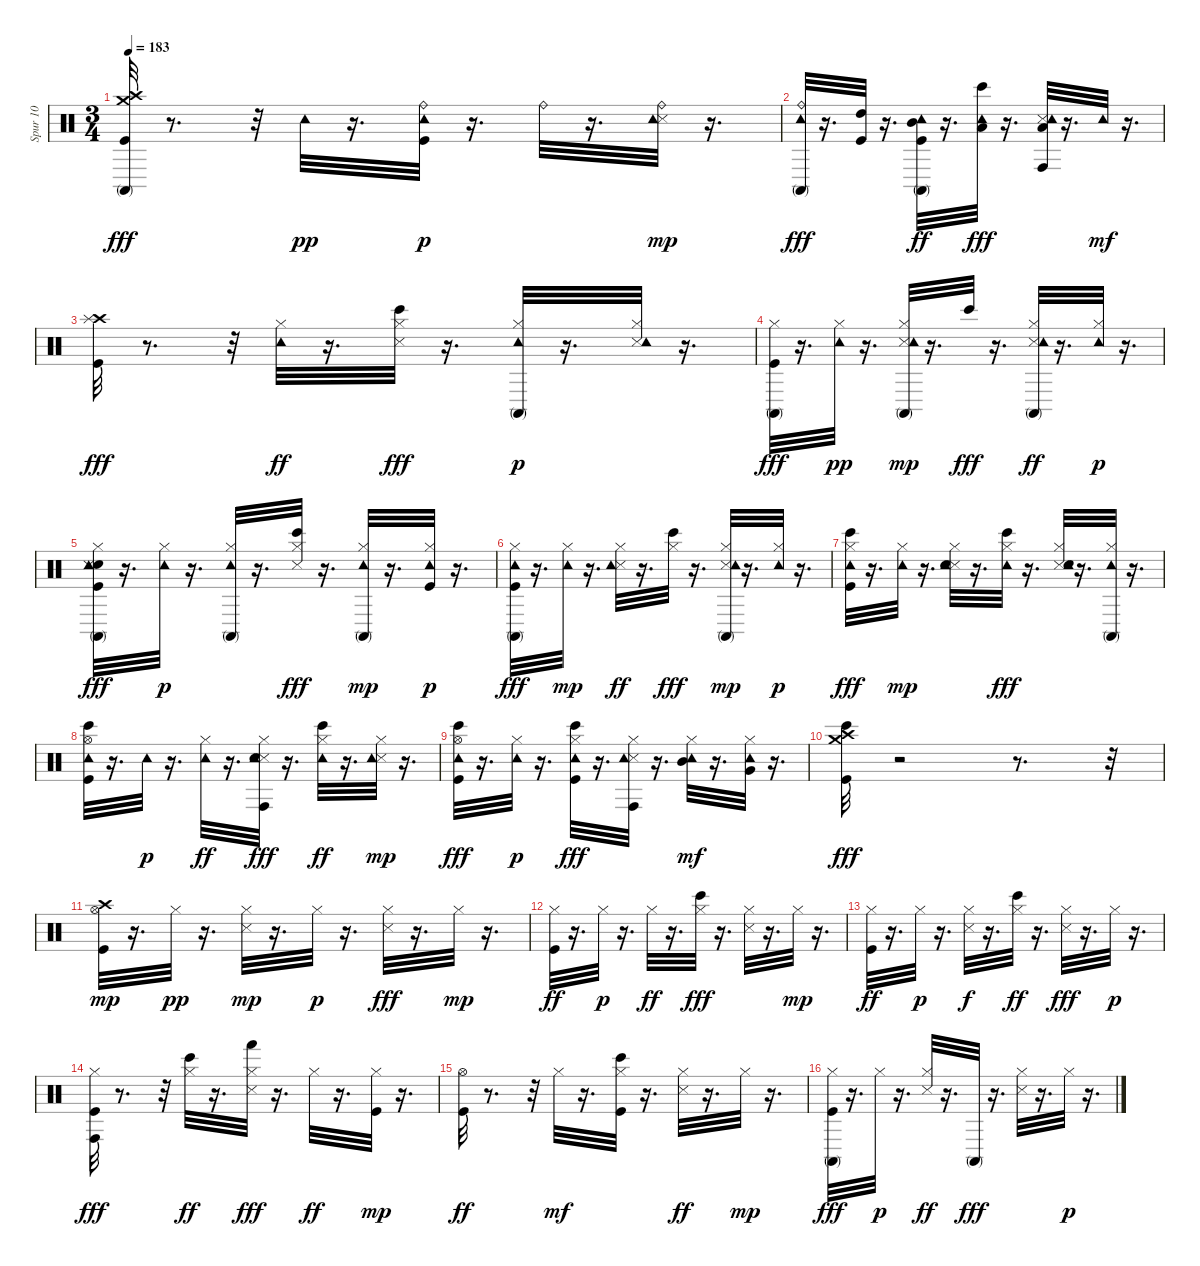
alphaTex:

\track ("Spur 10" "Spur 10") {instrument percussion}
\staff {score}
\articulation defaults
\ts (3 4)
\tempo 183
\clef neutral
\ks c
("Kick (hit)" "Crash high (hit)" "Crash medium (hit)" "Conga high (mute)").32{dy fff} r.8{d} r.32 "Tambourine (hit)".32{dy pp} r.16{d} ("Kick (hit)" "Ride (bell)" "Tambourine (hit)").32{dy p} r.16{d} "Ride (bell)".32 r.16{d} ("Snare (side stick) 3" "Ride (bell)" "Tambourine (hit)").32{dy mp} r.16{d} |
("Ride (bell)" "Tambourine (hit)" "Conga high (mute)").32{dy fff} r.16{d} ("Kick (hit)" "High Tom (hit)").32 r.16{d} ("Kick (hit)" "Mid Tom (hit)" "Tambourine (hit)" "Conga high (mute)").32{dy ff} r.16{d} ("Low Tom (hit)" "Tambourine (hit)" "Bongo High (hit)").32{dy fff} r.16{d} ("Snare (side stick) 3" "Low Tom (hit)" "Tambourine (hit)" "Conga high (hit)").32 r.16{d} "Tambourine (hit)".32{dy mf} r.16{d} |
("Kick (hit)" "Crash high (hit)" "Splash (hit)").32{dy fff} r.8{d} r.32 ("Hi-Hat (closed)" "Tambourine (hit)").32{dy ff} r.16{d} ("Snare (side stick) 3" "Hi-Hat (closed)" "Bongo High (hit)").32{dy fff} r.16{d} ("Hi-Hat (closed)" "Tambourine (hit)" "Conga high (mute)").32{dy p} r.16{d} ("Snare (side stick) 3" "Hi-Hat (closed)" "Tambourine (hit)").32 r.16{d} |
("Kick (hit)" "Hi-Hat (closed)" "Conga high (mute)").32{dy fff} r.16{d} ("Hi-Hat (closed)" "Tambourine (hit)").32{dy pp} r.16{d} ("Snare (side stick) 3" "Hi-Hat (closed)" "Tambourine (hit)" "Conga high (mute)").32{dy mp} r.16{d} "Bongo High (hit)".32{dy fff} r.16{d} ("Snare (side stick) 3" "Hi-Hat (closed)" "Tambourine (hit)" "Conga high (mute)").32{dy ff} r.16{d} ("Hi-Hat (closed)" "Tambourine (hit)").32{dy p} r.16{d} |
("Metronome (bell)" "Kick (hit)" "Snare (side stick) 3" "Hi-Hat (closed)" "Tambourine (hit)" "Conga high (mute)").32{dy fff} r.16{d} ("Hi-Hat (closed)" "Tambourine (hit)").32{dy p} r.16{d} ("Hi-Hat (closed)" "Tambourine (hit)" "Conga high (mute)").32 r.16{d} ("Snare (side stick) 3" "Hi-Hat (closed)" "Bongo High (hit)").32{dy fff} r.16{d} ("Hi-Hat (closed)" "Tambourine (hit)" "Conga high (mute)").32{dy mp} r.16{d} ("Kick (hit)" "Hi-Hat (closed)" "Tambourine (hit)").32{dy p} r.16{d} |
("Kick (hit)" "Hi-Hat (closed)" "Tambourine (hit)" "Conga high (mute)").32{dy fff} r.16{d} ("Hi-Hat (closed)" "Tambourine (hit)").32{dy mp} r.16{d} ("Snare (side stick) 3" "Hi-Hat (closed)" "Tambourine (hit)").32{dy ff} r.16{d} ("Hi-Hat (closed)" "Bongo High (hit)").32{dy fff} r.16{d} ("Snare (side stick) 3" "Hi-Hat (closed)" "Tambourine (hit)" "Conga high (mute)").32{dy mp} r.16{d} ("Hi-Hat (closed)" "Tambourine (hit)").32{dy p} r.16{d} |
("Kick (hit)" "Hi-Hat (closed)" "Tambourine (hit)" "Bongo High (hit)").32{dy fff} r.16{d} ("Hi-Hat (closed)" "Tambourine (hit)").32{dy mp} r.16{d} ("Snare (side stick) 3" "Hand Clap (hit)" "Hi-Hat (closed)" "Tambourine (hit)").32 r.16{d} ("Hi-Hat (closed)" "Tambourine (hit)" "Bongo High (hit)").32{dy fff} r.16{d} ("Snare (side stick) 3" "Hand Clap (hit)" "Hi-Hat (closed)" "Tambourine (hit)").32 r.16{d} ("Hi-Hat (closed)" "Tambourine (hit)" "Conga high (mute)").32 r.16{d} |
("Kick (hit)" "Hi-Hat (open)" "Tambourine (hit)" "Bongo High (hit)").32 r.16{d} "Tambourine (hit)".32{dy p} r.16{d} ("Hi-Hat (closed)" "Tambourine (hit)").32{dy ff} r.16{d} ("Snare (side stick) 3" "Hand Clap (hit)" "Hi-Hat (closed)" "Tambourine (hit)" "Conga high (hit)").32{dy fff} r.16{d} ("Hi-Hat (closed)" "Tambourine (hit)" "Bongo High (hit)").32{dy ff} r.16{d} ("Snare (side stick) 3" "Hi-Hat (closed)" "Tambourine (hit)").32{dy mp} r.16{d} |
("Kick (hit)" "Hi-Hat (open)" "Tambourine (hit)" "Bongo High (hit)").32{dy fff} r.16{d} ("Hi-Hat (closed)" "Tambourine (hit)").32{dy p} r.16{d} ("Kick (hit)" "Hi-Hat (closed)" "Tambourine (hit)" "Bongo High (hit)").32{dy fff} r.16{d} ("Snare (side stick) 3" "Hi-Hat (closed)" "Tambourine (hit)" "Conga high (hit)").32 r.16{d} ("Hi-Hat (closed)" "Mid Tom (hit)" "Tambourine (hit)").32{dy mf} r.16{d} ("Hi-Hat (closed)" "Very Low Tom (hit)" "Tambourine (hit)").32 r.16{d} |
("Kick (hit)" "Crash high (hit)" "Crash medium (hit)" "Bongo High (hit)").32{dy fff} r.2 r.8{d} r.32 |
("Kick (hit)" "Hi-Hat (open)" "Crash high (hit)").32{dy mp} r.16{d} "Hi-Hat (closed)".32{dy pp} r.16{d} ("Snare (side stick) 3" "Hi-Hat (closed)").32{dy mp} r.16{d} "Hi-Hat (closed)".32{dy p} r.16{d} ("Snare (side stick) 3" "Hi-Hat (closed)").32{dy fff} r.16{d} "Hi-Hat (closed)".32{dy mp} r.16{d} |
("Kick (hit)" "Hi-Hat (closed)").32{dy ff} r.16{d} "Hi-Hat (closed)".32{dy p} r.16{d} "Hi-Hat (closed)".32{dy ff} r.16{d} ("Hi-Hat (closed)" "Bongo High (hit)").32{dy fff} r.16{d} ("Snare (side stick) 3" "Hi-Hat (closed)").32 r.16{d} "Hi-Hat (closed)".32{dy mp} r.16{d} |
("Kick (hit)" "Hi-Hat (closed)").32{dy ff} r.16{d} "Hi-Hat (closed)".32{dy p} r.16{d} ("Snare (side stick) 3" "Hi-Hat (closed)").32{dy f} r.16{d} ("Hi-Hat (closed)" "Bongo High (hit)").32{dy ff} r.16{d} ("Snare (side stick) 3" "Hi-Hat (closed)").32{dy fff} r.16{d} "Hi-Hat (closed)".32{dy p} r.16{d} |
("Kick (hit)" "Hi-Hat (closed)" "Conga high (hit)").32{dy fff} r.8{d} r.32 ("Hi-Hat (closed)" "Bongo High (hit)").32{dy ff} r.16{d} ("Snare (side stick) 3" "Hi-Hat (closed)" "Hand (hit)").32{dy fff} r.16{d} "Hi-Hat (closed)".32{dy ff} r.16{d} ("Kick (hit)" "Hi-Hat (closed)").32{dy mp} r.16{d} |
("Kick (hit)" "Hi-Hat (open)").32{dy ff} r.8{d} r.32 "Hi-Hat (closed)".32{dy mf} r.16{d} ("Kick (hit)" "Hi-Hat (closed)" "Bongo High (hit)").32 r.16{d} ("Snare (side stick) 3" "Hi-Hat (closed)").32{dy ff} r.16{d} "Hi-Hat (closed)".32{dy mp} r.16{d} |
("Kick (hit)" "Hi-Hat (closed)" "Conga high (mute)").32{dy fff} r.16{d} "Hi-Hat (closed)".32{dy p} r.16{d} ("Snare (side stick) 3" "Hi-Hat (closed)").32{dy ff} r.16{d} "Conga high (mute)".32{dy fff} r.16{d} ("Snare (side stick) 3" "Hi-Hat (closed)").32 r.16{d} "Hi-Hat (closed)".32{dy p} r.16{d}
